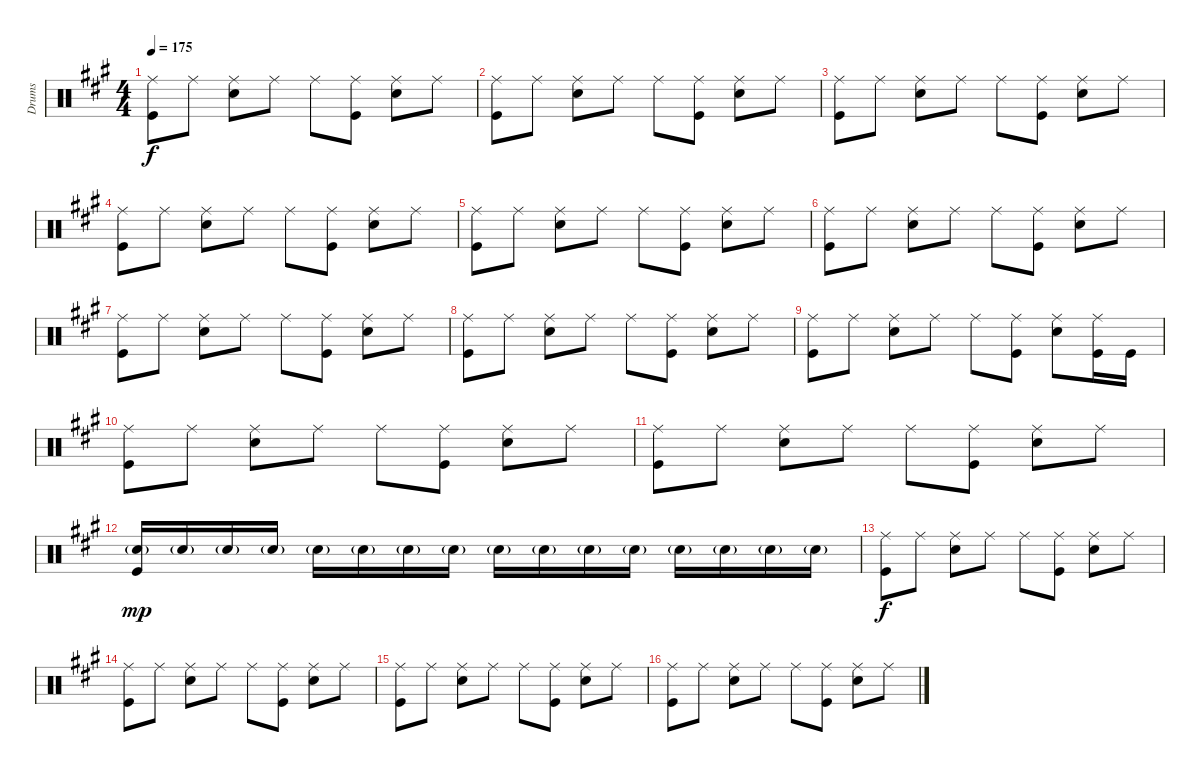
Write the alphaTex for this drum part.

\track ("Drums" "Drums") {instrument percussion}
\staff {score}
\articulation defaults
\ts (4 4)
\tempo 175
\clef neutral
\ks f#minor
("Ride (middle)" "Kick (hit)").8{dy f} "Ride (middle)".8 ("Ride (middle)" "Snare (hit) 2").8 "Ride (middle)".8 "Ride (middle)".8 ("Ride (middle)" "Kick (hit)").8 ("Ride (middle)" "Snare (hit) 2").8 "Ride (middle)".8 |
("Ride (middle)" "Kick (hit)").8 "Ride (middle)".8 ("Ride (middle)" "Snare (hit) 2").8 "Ride (middle)".8 "Ride (middle)".8 ("Ride (middle)" "Kick (hit)").8 ("Ride (middle)" "Snare (hit) 2").8 "Ride (middle)".8 |
("Ride (middle)" "Kick (hit)").8 "Ride (middle)".8 ("Ride (middle)" "Snare (hit) 2").8 "Ride (middle)".8 "Ride (middle)".8 ("Ride (middle)" "Kick (hit)").8 ("Ride (middle)" "Snare (hit) 2").8 "Ride (middle)".8 |
("Ride (middle)" "Kick (hit)").8 "Ride (middle)".8 ("Ride (middle)" "Snare (hit) 2").8 "Ride (middle)".8 "Ride (middle)".8 ("Ride (middle)" "Kick (hit)").8 ("Ride (middle)" "Snare (hit) 2").8 "Ride (middle)".8 |
("Ride (middle)" "Kick (hit)").8 "Ride (middle)".8 ("Ride (middle)" "Snare (hit) 2").8 "Ride (middle)".8 "Ride (middle)".8 ("Ride (middle)" "Kick (hit)").8 ("Ride (middle)" "Snare (hit) 2").8 "Ride (middle)".8 |
("Ride (middle)" "Kick (hit)").8 "Ride (middle)".8 ("Ride (middle)" "Snare (hit) 2").8 "Ride (middle)".8 "Ride (middle)".8 ("Ride (middle)" "Kick (hit)").8 ("Ride (middle)" "Snare (hit) 2").8 "Ride (middle)".8 |
("Ride (middle)" "Kick (hit)").8 "Ride (middle)".8 ("Ride (middle)" "Snare (hit) 2").8 "Ride (middle)".8 "Ride (middle)".8 ("Ride (middle)" "Kick (hit)").8 ("Ride (middle)" "Snare (hit) 2").8 "Ride (middle)".8 |
("Ride (middle)" "Kick (hit)").8 "Ride (middle)".8 ("Ride (middle)" "Snare (hit) 2").8 "Ride (middle)".8 "Ride (middle)".8 ("Ride (middle)" "Kick (hit)").8 ("Ride (middle)" "Snare (hit) 2").8 "Ride (middle)".8 |
("Ride (middle)" "Kick (hit)").8 "Ride (middle)".8 ("Ride (middle)" "Snare (hit) 2").8 "Ride (middle)".8 "Ride (middle)".8 ("Ride (middle)" "Kick (hit)").8 ("Ride (middle)" "Snare (hit) 2").8 ("Ride (middle)" "Kick (hit)").16 "Kick (hit)".16 |
("Ride (middle)" "Kick (hit)").8 "Ride (middle)".8 ("Ride (middle)" "Snare (hit) 2").8 "Ride (middle)".8 "Ride (middle)".8 ("Ride (middle)" "Kick (hit)").8 ("Ride (middle)" "Snare (hit) 2").8 "Ride (middle)".8 |
("Ride (middle)" "Kick (hit)").8 "Ride (middle)".8 ("Ride (middle)" "Snare (hit) 2").8 "Ride (middle)".8 "Ride (middle)".8 ("Ride (middle)" "Kick (hit)").8 ("Ride (middle)" "Snare (hit) 2").8 "Ride (middle)".8 |
("Snare (hit) 2"{g} "Kick (hit)").16{dy mp} "Snare (hit) 2"{g}.16 "Snare (hit) 2"{g}.16 "Snare (hit) 2"{g}.16 "Snare (hit) 2"{g}.16 "Snare (hit) 2"{g}.16 "Snare (hit) 2"{g}.16 "Snare (hit) 2"{g}.16 "Snare (hit) 2"{g}.16 "Snare (hit) 2"{g}.16 "Snare (hit) 2"{g}.16 "Snare (hit) 2"{g}.16 "Snare (hit) 2"{g}.16 "Snare (hit) 2"{g}.16 "Snare (hit) 2"{g}.16 "Snare (hit) 2"{g}.16 |
("Ride (middle)" "Kick (hit)").8{dy f} "Ride (middle)".8 ("Ride (middle)" "Snare (hit) 2").8 "Ride (middle)".8 "Ride (middle)".8 ("Ride (middle)" "Kick (hit)").8 ("Ride (middle)" "Snare (hit) 2").8 "Ride (middle)".8 |
("Ride (middle)" "Kick (hit)").8 "Ride (middle)".8 ("Ride (middle)" "Snare (hit) 2").8 "Ride (middle)".8 "Ride (middle)".8 ("Ride (middle)" "Kick (hit)").8 ("Ride (middle)" "Snare (hit) 2").8 "Ride (middle)".8 |
("Ride (middle)" "Kick (hit)").8 "Ride (middle)".8 ("Ride (middle)" "Snare (hit) 2").8 "Ride (middle)".8 "Ride (middle)".8 ("Ride (middle)" "Kick (hit)").8 ("Ride (middle)" "Snare (hit) 2").8 "Ride (middle)".8 |
("Ride (middle)" "Kick (hit)").8 "Ride (middle)".8 ("Ride (middle)" "Snare (hit) 2").8 "Ride (middle)".8 "Ride (middle)".8 ("Ride (middle)" "Kick (hit)").8 ("Ride (middle)" "Snare (hit) 2").8 "Ride (middle)".8
